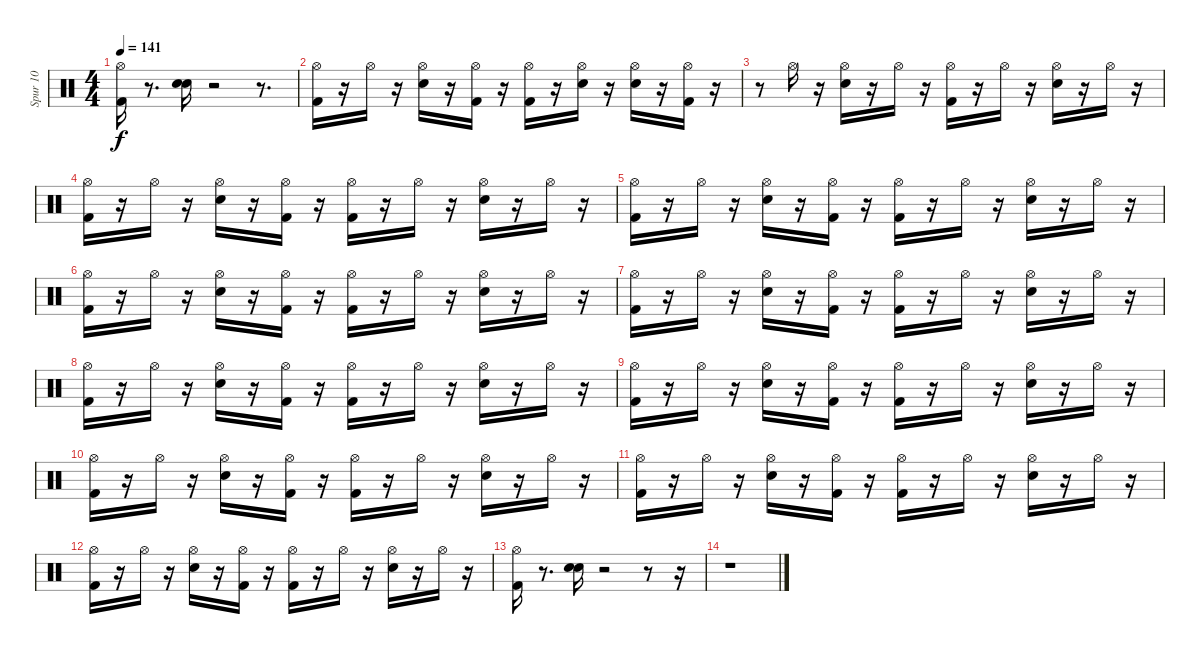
\track ("Spur 10" "Spur 10") {instrument percussion}
\staff {score}
\articulation defaults
\ts (4 4)
\tempo 141
\clef neutral
\ks c
("Kick (hit) 2" "Hi-Hat (open)").16{dy f} r.8{d} ("Electric Snare (hit)" "Snare (hit) 2").16 r.2 r.8{d} |
("Hi-Hat (open)" "Kick (hit) 2").16 r.16 "Hi-Hat (open)".16 r.16 ("Hi-Hat (open)" "Snare (hit) 2").16 r.16 ("Hi-Hat (open)" "Kick (hit) 2").16 r.16 ("Hi-Hat (open)" "Kick (hit) 2").16 r.16 ("Hi-Hat (open)" "Snare (hit) 2").16 r.16 ("Hi-Hat (open)" "Snare (hit) 2").16 r.16 ("Hi-Hat (open)" "Kick (hit) 2").16 r.16 |
r.8 "Hi-Hat (open)".16 r.16 ("Hi-Hat (open)" "Snare (hit) 2").16 r.16 "Hi-Hat (open)".16 r.16 ("Hi-Hat (open)" "Kick (hit) 2").16 r.16 "Hi-Hat (open)".16 r.16 ("Hi-Hat (open)" "Snare (hit) 2").16 r.16 "Hi-Hat (open)".16 r.16 |
("Hi-Hat (open)" "Kick (hit) 2").16 r.16 "Hi-Hat (open)".16 r.16 ("Hi-Hat (open)" "Snare (hit) 2").16 r.16 ("Hi-Hat (open)" "Kick (hit) 2").16 r.16 ("Hi-Hat (open)" "Kick (hit) 2").16 r.16 "Hi-Hat (open)".16 r.16 ("Hi-Hat (open)" "Snare (hit) 2").16 r.16 "Hi-Hat (open)".16 r.16 |
("Hi-Hat (open)" "Kick (hit) 2").16 r.16 "Hi-Hat (open)".16 r.16 ("Hi-Hat (open)" "Snare (hit) 2").16 r.16 ("Hi-Hat (open)" "Kick (hit) 2").16 r.16 ("Hi-Hat (open)" "Kick (hit) 2").16 r.16 "Hi-Hat (open)".16 r.16 ("Hi-Hat (open)" "Snare (hit) 2").16 r.16 "Hi-Hat (open)".16 r.16 |
("Kick (hit) 2" "Hi-Hat (open)").16 r.16 "Hi-Hat (open)".16 r.16 ("Snare (hit) 2" "Hi-Hat (open)").16 r.16 ("Kick (hit) 2" "Hi-Hat (open)").16 r.16 ("Kick (hit) 2" "Hi-Hat (open)").16 r.16 "Hi-Hat (open)".16 r.16 ("Snare (hit) 2" "Hi-Hat (open)").16 r.16 "Hi-Hat (open)".16 r.16 |
("Kick (hit) 2" "Hi-Hat (open)").16 r.16 "Hi-Hat (open)".16 r.16 ("Snare (hit) 2" "Hi-Hat (open)").16 r.16 ("Kick (hit) 2" "Hi-Hat (open)").16 r.16 ("Kick (hit) 2" "Hi-Hat (open)").16 r.16 "Hi-Hat (open)".16 r.16 ("Snare (hit) 2" "Hi-Hat (open)").16 r.16 "Hi-Hat (open)".16 r.16 |
("Kick (hit) 2" "Hi-Hat (open)").16 r.16 "Hi-Hat (open)".16 r.16 ("Snare (hit) 2" "Hi-Hat (open)").16 r.16 ("Kick (hit) 2" "Hi-Hat (open)").16 r.16 ("Kick (hit) 2" "Hi-Hat (open)").16 r.16 "Hi-Hat (open)".16 r.16 ("Snare (hit) 2" "Hi-Hat (open)").16 r.16 "Hi-Hat (open)".16 r.16 |
("Kick (hit) 2" "Hi-Hat (open)").16 r.16 "Hi-Hat (open)".16 r.16 ("Snare (hit) 2" "Hi-Hat (open)").16 r.16 ("Kick (hit) 2" "Hi-Hat (open)").16 r.16 ("Kick (hit) 2" "Hi-Hat (open)").16 r.16 "Hi-Hat (open)".16 r.16 ("Snare (hit) 2" "Hi-Hat (open)").16 r.16 "Hi-Hat (open)".16 r.16 |
("Hi-Hat (open)" "Kick (hit) 2").16 r.16 "Hi-Hat (open)".16 r.16 ("Hi-Hat (open)" "Snare (hit) 2").16 r.16 ("Hi-Hat (open)" "Kick (hit) 2").16 r.16 ("Hi-Hat (open)" "Kick (hit) 2").16 r.16 "Hi-Hat (open)".16 r.16 ("Hi-Hat (open)" "Snare (hit) 2").16 r.16 "Hi-Hat (open)".16 r.16 |
("Hi-Hat (open)" "Kick (hit) 2").16 r.16 "Hi-Hat (open)".16 r.16 ("Hi-Hat (open)" "Snare (hit) 2").16 r.16 ("Hi-Hat (open)" "Kick (hit) 2").16 r.16 ("Hi-Hat (open)" "Kick (hit) 2").16 r.16 "Hi-Hat (open)".16 r.16 ("Hi-Hat (open)" "Snare (hit) 2").16 r.16 "Hi-Hat (open)".16 r.16 |
("Hi-Hat (open)" "Kick (hit) 2").16 r.16 "Hi-Hat (open)".16 r.16 ("Hi-Hat (open)" "Snare (hit) 2").16 r.16 ("Hi-Hat (open)" "Kick (hit) 2").16 r.16 ("Hi-Hat (open)" "Kick (hit) 2").16 r.16 "Hi-Hat (open)".16 r.16 ("Hi-Hat (open)" "Snare (hit) 2").16 r.16 "Hi-Hat (open)".16 r.16 |
("Kick (hit) 2" "Hi-Hat (open)").16 r.8{d} ("Electric Snare (hit)" "Snare (hit) 2").16 r.2 r.8 r.16 |
r.1
